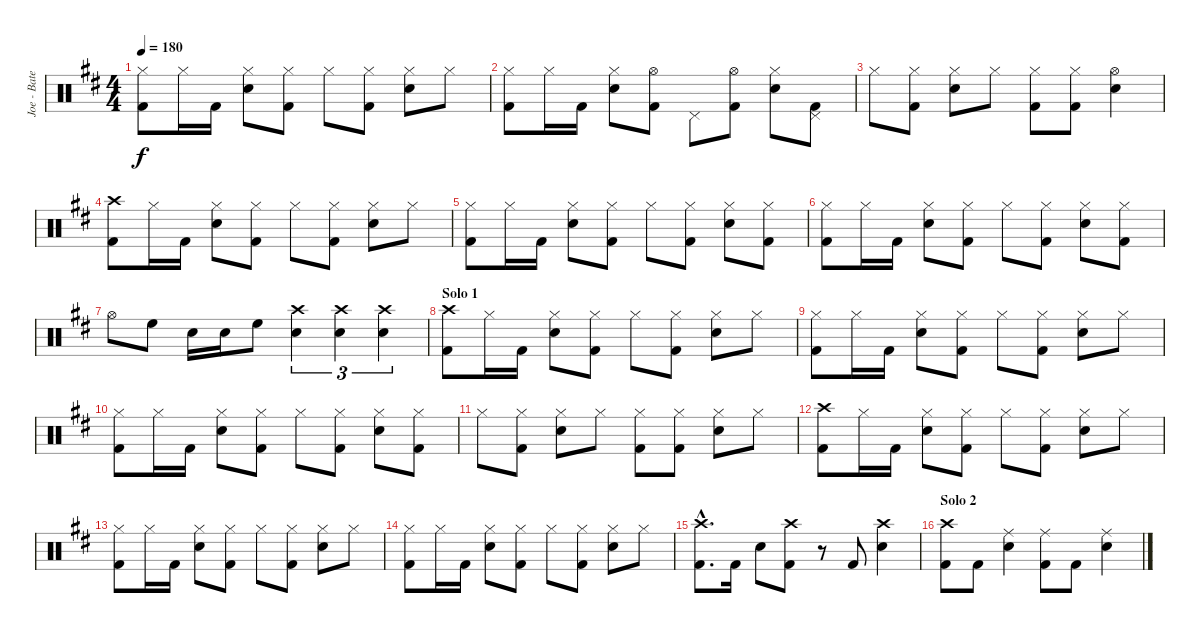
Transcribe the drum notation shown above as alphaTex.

\track ("Joe - Batería -" "Joe - Bate") {instrument percussion}
\staff {score}
\articulation defaults
\ts (4 4)
\tempo 180
\clef neutral
\ks bminor
("Hi-Hat (closed)" "Kick (hit) 2").8{dy f} "Hi-Hat (closed)".16 "Kick (hit) 2".16 ("Hi-Hat (closed)" "Snare (hit) 2").8 ("Hi-Hat (closed)" "Kick (hit) 2").8 "Hi-Hat (closed)".8 ("Hi-Hat (closed)" "Kick (hit) 2").8 ("Hi-Hat (closed)" "Snare (hit) 2").8 "Hi-Hat (closed)".8 |
("Hi-Hat (closed)" "Kick (hit) 2").8 "Hi-Hat (closed)".16 "Kick (hit) 2".16 ("Hi-Hat (closed)" "Snare (hit) 2").8 ("Hi-Hat (open)" "Kick (hit) 2").8 "Pedal Hi-Hat (hit)".8 ("Hi-Hat (open)" "Kick (hit) 2").8 ("Hi-Hat (closed)" "Snare (hit) 2").8 ("Pedal Hi-Hat (hit)" "Kick (hit) 2").8 |
"Hi-Hat (closed)".8 ("Hi-Hat (closed)" "Kick (hit) 2").8 ("Hi-Hat (closed)" "Snare (hit) 2").8 "Hi-Hat (closed)".8 ("Hi-Hat (closed)" "Kick (hit) 2").8 ("Hi-Hat (closed)" "Kick (hit) 2").8 ("Hi-Hat (open)" "Snare (hit) 2").4 |
\section ("" "")
("Crash high (hit)" "Kick (hit) 2").8 "Hi-Hat (closed)".16 "Kick (hit) 2".16 ("Hi-Hat (closed)" "Snare (hit) 2").8 ("Hi-Hat (closed)" "Kick (hit) 2").8 "Hi-Hat (closed)".8 ("Hi-Hat (closed)" "Kick (hit) 2").8 ("Hi-Hat (closed)" "Snare (hit) 2").8 "Hi-Hat (closed)".8 |
("Hi-Hat (closed)" "Kick (hit) 2").8 "Hi-Hat (closed)".16 "Kick (hit) 2".16 ("Hi-Hat (closed)" "Snare (hit) 2").8 ("Hi-Hat (closed)" "Kick (hit) 2").8 "Hi-Hat (closed)".8 ("Hi-Hat (closed)" "Kick (hit) 2").8 ("Hi-Hat (closed)" "Snare (hit) 2").8 ("Hi-Hat (closed)" "Kick (hit) 2").8 |
("Hi-Hat (closed)" "Kick (hit) 2").8 "Hi-Hat (closed)".16 "Kick (hit) 2".16 ("Hi-Hat (closed)" "Snare (hit) 2").8 ("Hi-Hat (closed)" "Kick (hit) 2").8 "Hi-Hat (closed)".8 ("Hi-Hat (closed)" "Kick (hit) 2").8 ("Hi-Hat (closed)" "Snare (hit) 2").8 ("Hi-Hat (closed)" "Kick (hit) 2").8 |
"Hi-Hat (open)".8 "High Floor Tom (hit)".8 "Snare (hit) 2".16 "Snare (hit) 2".16 "High Floor Tom (hit)".8 ("Crash high (hit)" "Snare (hit) 2").4{tu (3 2)} ("Crash high (hit)" "Snare (hit) 2").4{tu (3 2)} ("Crash high (hit)" "Snare (hit) 2").4{tu (3 2)} |
\section ("" "Solo 1")
("Crash high (hit)" "Kick (hit) 2").8 "Hi-Hat (closed)".16 "Kick (hit) 2".16 ("Hi-Hat (closed)" "Snare (hit) 2").8 ("Hi-Hat (closed)" "Kick (hit) 2").8 "Hi-Hat (closed)".8 ("Hi-Hat (closed)" "Kick (hit) 2").8 ("Hi-Hat (closed)" "Snare (hit) 2").8 "Hi-Hat (closed)".8 |
("Hi-Hat (closed)" "Kick (hit) 2").8 "Hi-Hat (closed)".16 "Kick (hit) 2".16 ("Hi-Hat (closed)" "Snare (hit) 2").8 ("Hi-Hat (closed)" "Kick (hit) 2").8 "Hi-Hat (closed)".8 ("Hi-Hat (closed)" "Kick (hit) 2").8 ("Hi-Hat (closed)" "Snare (hit) 2").8 "Hi-Hat (closed)".8 |
("Hi-Hat (closed)" "Kick (hit) 2").8 "Hi-Hat (closed)".16 "Kick (hit) 2".16 ("Hi-Hat (closed)" "Snare (hit) 2").8 ("Hi-Hat (closed)" "Kick (hit) 2").8 "Hi-Hat (closed)".8 ("Hi-Hat (closed)" "Kick (hit) 2").8 ("Hi-Hat (closed)" "Snare (hit) 2").8 ("Hi-Hat (closed)" "Kick (hit) 2").8 |
"Hi-Hat (closed)".8 ("Hi-Hat (closed)" "Kick (hit) 2").8 ("Hi-Hat (closed)" "Snare (hit) 2").8 "Hi-Hat (closed)".8 ("Hi-Hat (closed)" "Kick (hit) 2").8 ("Hi-Hat (closed)" "Kick (hit) 2").8 ("Hi-Hat (closed)" "Snare (hit) 2").8 "Hi-Hat (closed)".8 |
("Crash high (hit)" "Kick (hit) 2").8 "Hi-Hat (closed)".16 "Kick (hit) 2".16 ("Hi-Hat (closed)" "Snare (hit) 2").8 ("Hi-Hat (closed)" "Kick (hit) 2").8 "Hi-Hat (closed)".8 ("Hi-Hat (closed)" "Kick (hit) 2").8 ("Hi-Hat (closed)" "Snare (hit) 2").8 "Hi-Hat (closed)".8 |
("Hi-Hat (closed)" "Kick (hit) 2").8 "Hi-Hat (closed)".16 "Kick (hit) 2".16 ("Hi-Hat (closed)" "Snare (hit) 2").8 ("Hi-Hat (closed)" "Kick (hit) 2").8 "Hi-Hat (closed)".8 ("Hi-Hat (closed)" "Kick (hit) 2").8 ("Hi-Hat (closed)" "Snare (hit) 2").8 "Hi-Hat (closed)".8 |
("Hi-Hat (closed)" "Kick (hit) 2").8 "Hi-Hat (closed)".16 "Kick (hit) 2".16 ("Hi-Hat (closed)" "Snare (hit) 2").8 ("Hi-Hat (closed)" "Kick (hit) 2").8 "Hi-Hat (closed)".8 ("Hi-Hat (closed)" "Kick (hit) 2").8 ("Hi-Hat (closed)" "Snare (hit) 2").8 "Hi-Hat (closed)".8 |
("Crash high (hit)"{hac} "Kick (hit) 2"{hac}).8{d} "Kick (hit) 2".16 "Snare (hit) 2".8 ("Crash high (hit)" "Kick (hit) 2").8 r.8 "Kick (hit) 2".8 ("Crash high (hit)" "Snare (hit) 2").4 |
\section ("" "Solo 2")
("Crash high (hit)" "Kick (hit) 2").8 "Kick (hit) 2".8 ("Ride (middle)" "Snare (hit) 2").4 ("Ride (middle)" "Kick (hit) 2").8 "Kick (hit) 2".8 ("Ride (middle)" "Snare (hit) 2").4
